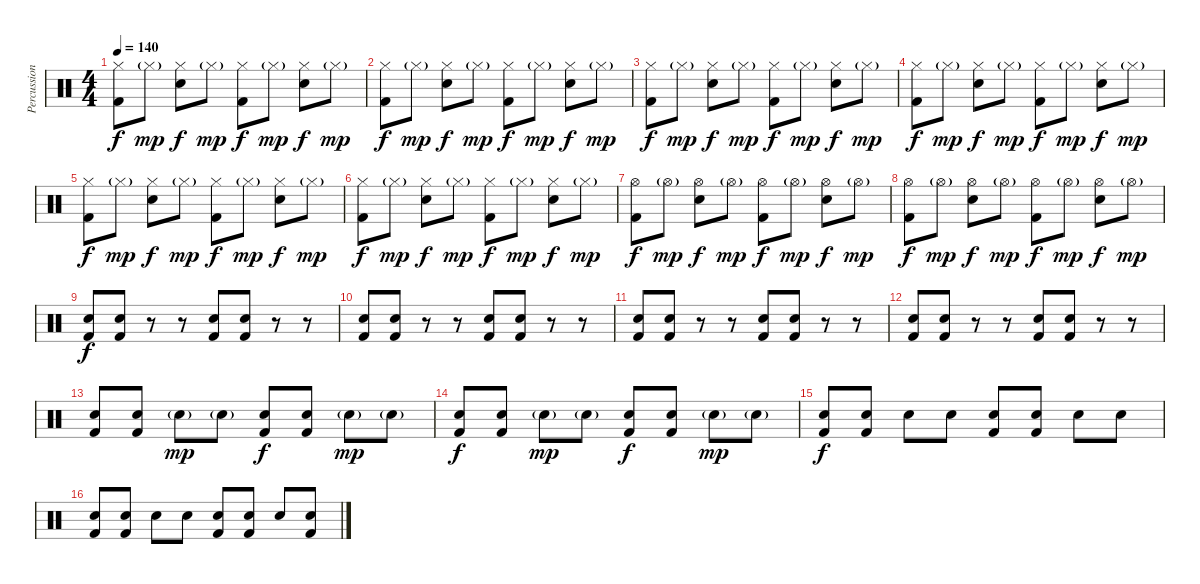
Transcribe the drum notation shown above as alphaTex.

\track ("Percussion" "Percussion") {instrument percussion}
\staff {score}
\articulation defaults
\ts (4 4)
\tempo 140
\clef neutral
\ks c
("Hi-Hat (closed)" "Kick (hit) 2").8{dy f} "Hi-Hat (closed)"{g}.8{dy mp} ("Hi-Hat (closed)" "Snare (hit) 2").8{dy f} "Hi-Hat (closed)"{g}.8{dy mp} ("Hi-Hat (closed)" "Kick (hit) 2").8{dy f} "Hi-Hat (closed)"{g}.8{dy mp} ("Hi-Hat (closed)" "Snare (hit) 2").8{dy f} "Hi-Hat (closed)"{g}.8{dy mp} |
("Hi-Hat (closed)" "Kick (hit) 2").8{dy f} "Hi-Hat (closed)"{g}.8{dy mp} ("Hi-Hat (closed)" "Snare (hit) 2").8{dy f} "Hi-Hat (closed)"{g}.8{dy mp} ("Hi-Hat (closed)" "Kick (hit) 2").8{dy f} "Hi-Hat (closed)"{g}.8{dy mp} ("Hi-Hat (closed)" "Snare (hit) 2").8{dy f} "Hi-Hat (closed)"{g}.8{dy mp} |
("Hi-Hat (closed)" "Kick (hit) 2").8{dy f} "Hi-Hat (closed)"{g}.8{dy mp} ("Hi-Hat (closed)" "Snare (hit) 2").8{dy f} "Hi-Hat (closed)"{g}.8{dy mp} ("Hi-Hat (closed)" "Kick (hit) 2").8{dy f} "Hi-Hat (closed)"{g}.8{dy mp} ("Hi-Hat (closed)" "Snare (hit) 2").8{dy f} "Hi-Hat (closed)"{g}.8{dy mp} |
("Hi-Hat (closed)" "Kick (hit) 2").8{dy f} "Hi-Hat (closed)"{g}.8{dy mp} ("Hi-Hat (closed)" "Snare (hit) 2").8{dy f} "Hi-Hat (closed)"{g}.8{dy mp} ("Hi-Hat (closed)" "Kick (hit) 2").8{dy f} "Hi-Hat (closed)"{g}.8{dy mp} ("Hi-Hat (closed)" "Snare (hit) 2").8{dy f} "Hi-Hat (closed)"{g}.8{dy mp} |
("Hi-Hat (closed)" "Kick (hit) 2").8{dy f} "Hi-Hat (closed)"{g}.8{dy mp} ("Hi-Hat (closed)" "Snare (hit) 2").8{dy f} "Hi-Hat (closed)"{g}.8{dy mp} ("Hi-Hat (closed)" "Kick (hit) 2").8{dy f} "Hi-Hat (closed)"{g}.8{dy mp} ("Hi-Hat (closed)" "Snare (hit) 2").8{dy f} "Hi-Hat (closed)"{g}.8{dy mp} |
("Hi-Hat (closed)" "Kick (hit) 2").8{dy f} "Hi-Hat (closed)"{g}.8{dy mp} ("Hi-Hat (closed)" "Snare (hit) 2").8{dy f} "Hi-Hat (closed)"{g}.8{dy mp} ("Hi-Hat (closed)" "Kick (hit) 2").8{dy f} "Hi-Hat (closed)"{g}.8{dy mp} ("Hi-Hat (closed)" "Snare (hit) 2").8{dy f} "Hi-Hat (closed)"{g}.8{dy mp} |
("Hi-Hat (open)" "Kick (hit) 2").8{dy f} "Hi-Hat (open)"{g}.8{dy mp} ("Hi-Hat (open)" "Snare (hit) 2").8{dy f} "Hi-Hat (open)"{g}.8{dy mp} ("Hi-Hat (open)" "Kick (hit) 2").8{dy f} "Hi-Hat (open)"{g}.8{dy mp} ("Hi-Hat (open)" "Snare (hit) 2").8{dy f} "Hi-Hat (open)"{g}.8{dy mp} |
("Hi-Hat (open)" "Kick (hit) 2").8{dy f} "Hi-Hat (open)"{g}.8{dy mp} ("Hi-Hat (open)" "Snare (hit) 2").8{dy f} "Hi-Hat (open)"{g}.8{dy mp} ("Hi-Hat (open)" "Kick (hit) 2").8{dy f} "Hi-Hat (open)"{g}.8{dy mp} ("Hi-Hat (open)" "Snare (hit) 2").8{dy f} "Hi-Hat (open)"{g}.8{dy mp} |
("Snare (hit) 2" "Kick (hit) 2").8{dy f} ("Snare (hit) 2" "Kick (hit) 2").8 r.8 r.8 ("Snare (hit) 2" "Kick (hit) 2").8 ("Snare (hit) 2" "Kick (hit) 2").8 r.8 r.8 |
("Snare (hit) 2" "Kick (hit) 2").8 ("Snare (hit) 2" "Kick (hit) 2").8 r.8 r.8 ("Snare (hit) 2" "Kick (hit) 2").8 ("Snare (hit) 2" "Kick (hit) 2").8 r.8 r.8 |
("Snare (hit) 2" "Kick (hit) 2").8 ("Snare (hit) 2" "Kick (hit) 2").8 r.8 r.8 ("Snare (hit) 2" "Kick (hit) 2").8 ("Snare (hit) 2" "Kick (hit) 2").8 r.8 r.8 |
("Snare (hit) 2" "Kick (hit) 2").8 ("Snare (hit) 2" "Kick (hit) 2").8 r.8 r.8 ("Snare (hit) 2" "Kick (hit) 2").8 ("Snare (hit) 2" "Kick (hit) 2").8 r.8 r.8 |
("Snare (hit) 2" "Kick (hit) 2").8 ("Snare (hit) 2" "Kick (hit) 2").8 "Snare (hit) 2"{g}.8{dy mp} "Snare (hit) 2"{g}.8 ("Snare (hit) 2" "Kick (hit) 2").8{dy f} ("Snare (hit) 2" "Kick (hit) 2").8 "Snare (hit) 2"{g}.8{dy mp} "Snare (hit) 2"{g}.8 |
("Snare (hit) 2" "Kick (hit) 2").8{dy f} ("Snare (hit) 2" "Kick (hit) 2").8 "Snare (hit) 2"{g}.8{dy mp} "Snare (hit) 2"{g}.8 ("Snare (hit) 2" "Kick (hit) 2").8{dy f} ("Snare (hit) 2" "Kick (hit) 2").8 "Snare (hit) 2"{g}.8{dy mp} "Snare (hit) 2"{g}.8 |
("Snare (hit) 2" "Kick (hit) 2").8{dy f} ("Snare (hit) 2" "Kick (hit) 2").8 "Snare (hit) 2".8 "Snare (hit) 2".8 ("Snare (hit) 2" "Kick (hit) 2").8 ("Snare (hit) 2" "Kick (hit) 2").8 "Snare (hit) 2".8 "Snare (hit) 2".8 |
("Snare (hit) 2" "Kick (hit) 2").8 ("Snare (hit) 2" "Kick (hit) 2").8 "Snare (hit) 2".8 "Snare (hit) 2".8 ("Snare (hit) 2" "Kick (hit) 2").8 ("Snare (hit) 2" "Kick (hit) 2").8 "Snare (hit) 2".8 ("Snare (hit) 2" "Kick (hit) 2").8
